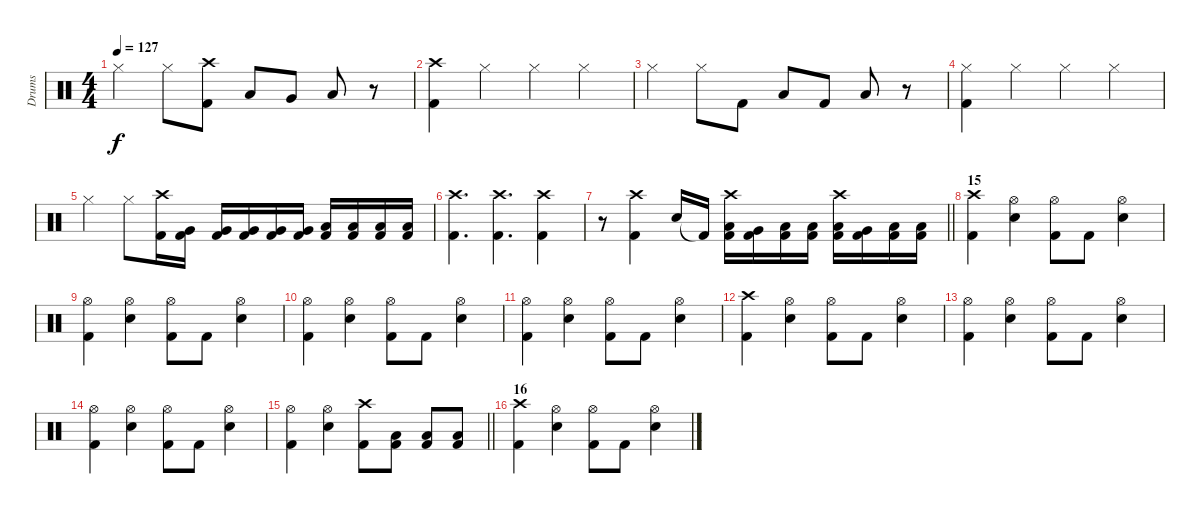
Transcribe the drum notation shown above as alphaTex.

\track ("Drums" "Drums") {instrument percussion}
\staff {score}
\articulation defaults
\ts (4 4)
\tempo 127
\clef neutral
\ks c "Hi-Hat (closed)".4{dy f} "Hi-Hat (closed)".8
("Crash high (hit)" "Kick (hit) 2").8 "Low Tom (hit)".8 "Very Low Tom (hit)".8 "Low Floor Tom (hit)".8 r.8 |
("Crash high (hit)" "Kick (hit) 2").4 "Hi-Hat (closed)".4 "Hi-Hat (closed)".4 "Hi-Hat (closed)".4 |
"Hi-Hat (closed)".4 "Hi-Hat (closed)".8 "Kick (hit) 2".8 "Low Tom (hit)".8 "Kick (hit) 2".8 "Low Tom (hit)".8 r.8 |
("Hi-Hat (closed)" "Kick (hit) 2").4 "Hi-Hat (closed)".4 "Hi-Hat (closed)".4 "Hi-Hat (closed)".4 |
"Hi-Hat (closed)".4 "Hi-Hat (closed)".8 ("Crash high (hit)" "Kick (hit) 2").16 ("Very Low Tom (hit)" "Kick (hit) 2").16 ("Very Low Tom (hit)" "Kick (hit) 2").16 ("Very Low Tom (hit)" "Kick (hit) 2").16 ("Very Low Tom (hit)" "Kick (hit) 2").16 ("Very Low Tom (hit)" "Kick (hit) 2").16 ("Low Floor Tom (hit)" "Kick (hit) 2").16 ("Low Floor Tom (hit)" "Kick (hit) 2").16 ("Low Floor Tom (hit)" "Kick (hit) 2").16 ("Low Floor Tom (hit)" "Kick (hit) 2").16 |
("Crash high (hit)" "Kick (hit) 2").4{d} ("Crash high (hit)" "Kick (hit) 2").4{d} ("Crash high (hit)" "Kick (hit) 2").4 |
\barLineRight lightlight
r.8 ("Crash high (hit)" "Kick (hit) 2").4 "Snare (hit) 2".16 "Kick (hit) 2"{t}.16 ("Low Tom (hit)" "Kick (hit) 2" "Crash high (hit)").16 ("Very Low Tom (hit)" "Kick (hit) 2").16 ("Low Floor Tom (hit)" "Kick (hit) 2").16 ("Low Floor Tom (hit)" "Kick (hit) 2").16 ("Low Tom (hit)" "Kick (hit) 2" "Crash high (hit)").16 ("Very Low Tom (hit)" "Kick (hit) 2").16 ("Low Floor Tom (hit)" "Kick (hit) 2").16 ("Low Floor Tom (hit)" "Kick (hit) 2").16 |
\section ("" "15")
("Crash high (hit)" "Kick (hit) 2").4 ("Hi-Hat (open)" "Snare (hit) 2").4 ("Hi-Hat (open)" "Kick (hit) 2").8 "Kick (hit) 2".8 ("Hi-Hat (open)" "Snare (hit) 2").4 |
("Hi-Hat (open)" "Kick (hit) 2").4 ("Hi-Hat (open)" "Snare (hit) 2").4 ("Hi-Hat (open)" "Kick (hit) 2").8 "Kick (hit) 2".8 ("Hi-Hat (open)" "Snare (hit) 2").4 |
("Hi-Hat (open)" "Kick (hit) 2").4 ("Hi-Hat (open)" "Snare (hit) 2").4 ("Hi-Hat (open)" "Kick (hit) 2").8 "Kick (hit) 2".8 ("Hi-Hat (open)" "Snare (hit) 2").4 |
("Hi-Hat (open)" "Kick (hit) 2").4 ("Hi-Hat (open)" "Snare (hit) 2").4 ("Hi-Hat (open)" "Kick (hit) 2").8 "Kick (hit) 2".8 ("Hi-Hat (open)" "Snare (hit) 2").4 |
("Crash high (hit)" "Kick (hit) 2").4 ("Hi-Hat (open)" "Snare (hit) 2").4 ("Hi-Hat (open)" "Kick (hit) 2").8 "Kick (hit) 2".8 ("Hi-Hat (open)" "Snare (hit) 2").4 |
("Hi-Hat (open)" "Kick (hit) 2").4 ("Hi-Hat (open)" "Snare (hit) 2").4 ("Hi-Hat (open)" "Kick (hit) 2").8 "Kick (hit) 2".8 ("Hi-Hat (open)" "Snare (hit) 2").4 |
("Hi-Hat (open)" "Kick (hit) 2").4 ("Hi-Hat (open)" "Snare (hit) 2").4 ("Hi-Hat (open)" "Kick (hit) 2").8 "Kick (hit) 2".8 ("Hi-Hat (open)" "Snare (hit) 2").4 |
\barLineRight lightlight
("Hi-Hat (open)" "Kick (hit) 2").4 ("Hi-Hat (open)" "Snare (hit) 2").4 ("Crash high (hit)" "Kick (hit) 2").8 ("Low Tom (hit)" "Kick (hit) 2").8 ("Low Tom (hit)" "Kick (hit) 2").8 ("Low Tom (hit)" "Kick (hit) 2").8 |
\section ("" "16")
("Crash high (hit)" "Kick (hit) 2").4 ("Hi-Hat (open)" "Snare (hit) 2").4 ("Hi-Hat (open)" "Kick (hit) 2").8 "Kick (hit) 2".8 ("Hi-Hat (open)" "Snare (hit) 2").4
